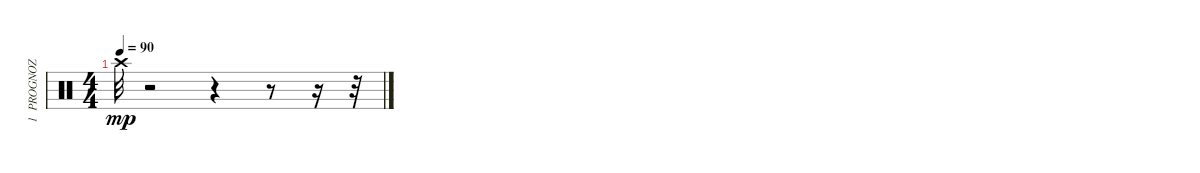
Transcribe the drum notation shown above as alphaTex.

\track ("1  PROGNOZ POGODY" "1  PROGNOZ") {instrument percussion}
\staff {score}
\articulation defaults
\ts (4 4)
\tempo 90
\clef neutral
\ks c "Crash high (hit)".32{dy mp}
r.2 r.4 r.8 r.16 r.32
